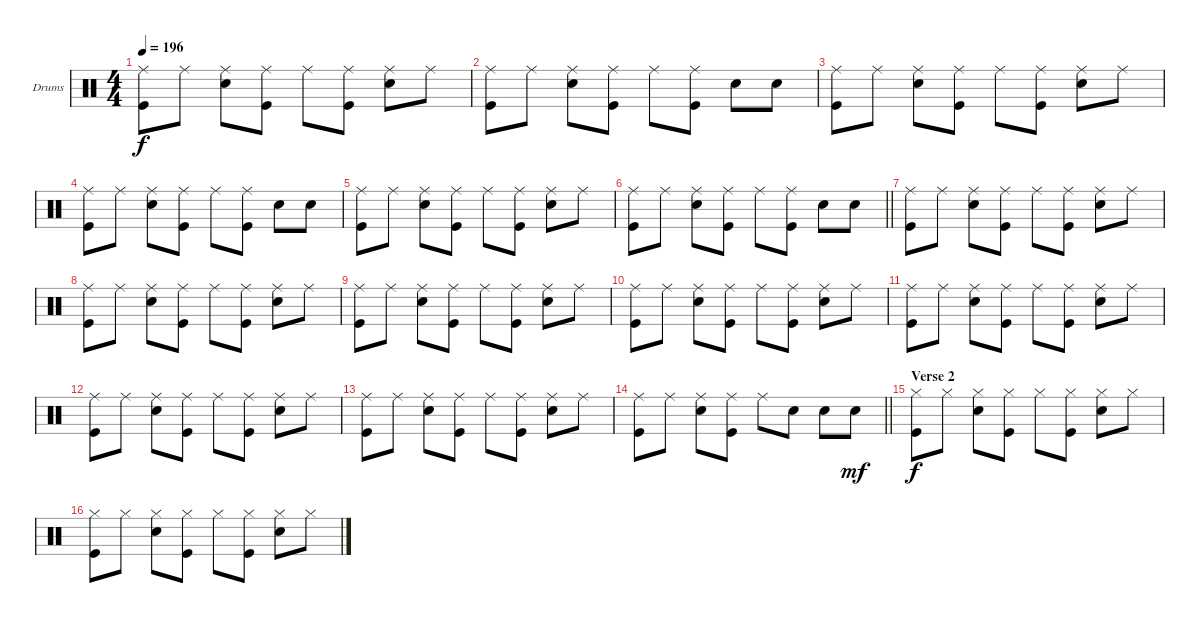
\bracketExtendMode groupsimilarinstruments
\firstSystemTrackNameOrientation horizontal
\otherSystemsTrackNameOrientation horizontal
\track ("Fabrizio" "Drums") {instrument percussion}
\staff {score}
\articulation defaults
\ts (4 4)
\tempo 196
\clef neutral
\ks c
("Kick (hit)" "Ride (middle)").8{dy f} "Ride (middle)".8 ("Snare (hit) 2" "Ride (middle)").8 ("Kick (hit)" "Ride (middle)").8 "Ride (middle)".8 ("Kick (hit)" "Ride (middle)").8 ("Snare (hit) 2" "Ride (middle)").8 "Ride (middle)".8 |
("Kick (hit)" "Ride (middle)").8 "Ride (middle)".8 ("Snare (hit) 2" "Ride (middle)").8 ("Kick (hit)" "Ride (middle)").8 "Ride (middle)".8 ("Kick (hit)" "Ride (middle)").8 "Snare (hit) 2".8 "Snare (hit) 2".8 |
("Kick (hit)" "Ride (middle)").8 "Ride (middle)".8 ("Snare (hit) 2" "Ride (middle)").8 ("Kick (hit)" "Ride (middle)").8 "Ride (middle)".8 ("Kick (hit)" "Ride (middle)").8 ("Snare (hit) 2" "Ride (middle)").8 "Ride (middle)".8 |
("Kick (hit)" "Ride (middle)").8 "Ride (middle)".8 ("Snare (hit) 2" "Ride (middle)").8 ("Kick (hit)" "Ride (middle)").8 "Ride (middle)".8 ("Kick (hit)" "Ride (middle)").8 "Snare (hit) 2".8 "Snare (hit) 2".8 |
("Kick (hit)" "Ride (middle)").8 "Ride (middle)".8 ("Snare (hit) 2" "Ride (middle)").8 ("Kick (hit)" "Ride (middle)").8 "Ride (middle)".8 ("Kick (hit)" "Ride (middle)").8 ("Snare (hit) 2" "Ride (middle)").8 "Ride (middle)".8 |
\barLineRight lightlight
("Kick (hit)" "Ride (middle)").8 "Ride (middle)".8 ("Snare (hit) 2" "Ride (middle)").8 ("Kick (hit)" "Ride (middle)").8 "Ride (middle)".8 ("Kick (hit)" "Ride (middle)").8 "Snare (hit) 2".8 "Snare (hit) 2".8 |
("Kick (hit)" "Ride (middle)").8 "Ride (middle)".8 ("Snare (hit) 2" "Ride (middle)").8 ("Kick (hit)" "Ride (middle)").8 "Ride (middle)".8 ("Kick (hit)" "Ride (middle)").8 ("Snare (hit) 2" "Ride (middle)").8 "Ride (middle)".8 |
("Kick (hit)" "Ride (middle)").8 "Ride (middle)".8 ("Snare (hit) 2" "Ride (middle)").8 ("Kick (hit)" "Ride (middle)").8 "Ride (middle)".8 ("Kick (hit)" "Ride (middle)").8 ("Snare (hit) 2" "Ride (middle)").8 "Ride (middle)".8 |
("Kick (hit)" "Ride (middle)").8 "Ride (middle)".8 ("Snare (hit) 2" "Ride (middle)").8 ("Kick (hit)" "Ride (middle)").8 "Ride (middle)".8 ("Kick (hit)" "Ride (middle)").8 ("Snare (hit) 2" "Ride (middle)").8 "Ride (middle)".8 |
("Kick (hit)" "Ride (middle)").8 "Ride (middle)".8 ("Snare (hit) 2" "Ride (middle)").8 ("Kick (hit)" "Ride (middle)").8 "Ride (middle)".8 ("Kick (hit)" "Ride (middle)").8 ("Snare (hit) 2" "Ride (middle)").8 "Ride (middle)".8 |
("Kick (hit)" "Ride (middle)").8 "Ride (middle)".8 ("Snare (hit) 2" "Ride (middle)").8 ("Kick (hit)" "Ride (middle)").8 "Ride (middle)".8 ("Kick (hit)" "Ride (middle)").8 ("Snare (hit) 2" "Ride (middle)").8 "Ride (middle)".8 |
("Kick (hit)" "Ride (middle)").8 "Ride (middle)".8 ("Snare (hit) 2" "Ride (middle)").8 ("Kick (hit)" "Ride (middle)").8 "Ride (middle)".8 ("Kick (hit)" "Ride (middle)").8 ("Snare (hit) 2" "Ride (middle)").8 "Ride (middle)".8 |
("Kick (hit)" "Ride (middle)").8 "Ride (middle)".8 ("Snare (hit) 2" "Ride (middle)").8 ("Kick (hit)" "Ride (middle)").8 "Ride (middle)".8 ("Kick (hit)" "Ride (middle)").8 ("Snare (hit) 2" "Ride (middle)").8 "Ride (middle)".8 |
\barLineRight lightlight
("Kick (hit)" "Ride (middle)").8 "Ride (middle)".8 ("Snare (hit) 2" "Ride (middle)").8 ("Kick (hit)" "Ride (middle)").8 "Ride (middle)".8 "Snare (hit) 2".8 "Snare (hit) 2".8 "Snare (hit) 2".8{dy mf} |
\section ("" "Verse 2")
("Hi-Hat (closed)" "Kick (hit)").8{dy f} "Hi-Hat (closed)".8 ("Snare (hit) 2" "Hi-Hat (closed)").8 ("Kick (hit)" "Hi-Hat (closed)").8 "Hi-Hat (closed)".8 ("Kick (hit)" "Hi-Hat (closed)").8 ("Snare (hit) 2" "Hi-Hat (closed)").8 "Hi-Hat (closed)".8 |
("Hi-Hat (closed)" "Kick (hit)").8 "Hi-Hat (closed)".8 ("Snare (hit) 2" "Hi-Hat (closed)").8 ("Kick (hit)" "Hi-Hat (closed)").8 "Hi-Hat (closed)".8 ("Kick (hit)" "Hi-Hat (closed)").8 ("Snare (hit) 2" "Hi-Hat (closed)").8 "Hi-Hat (closed)".8
